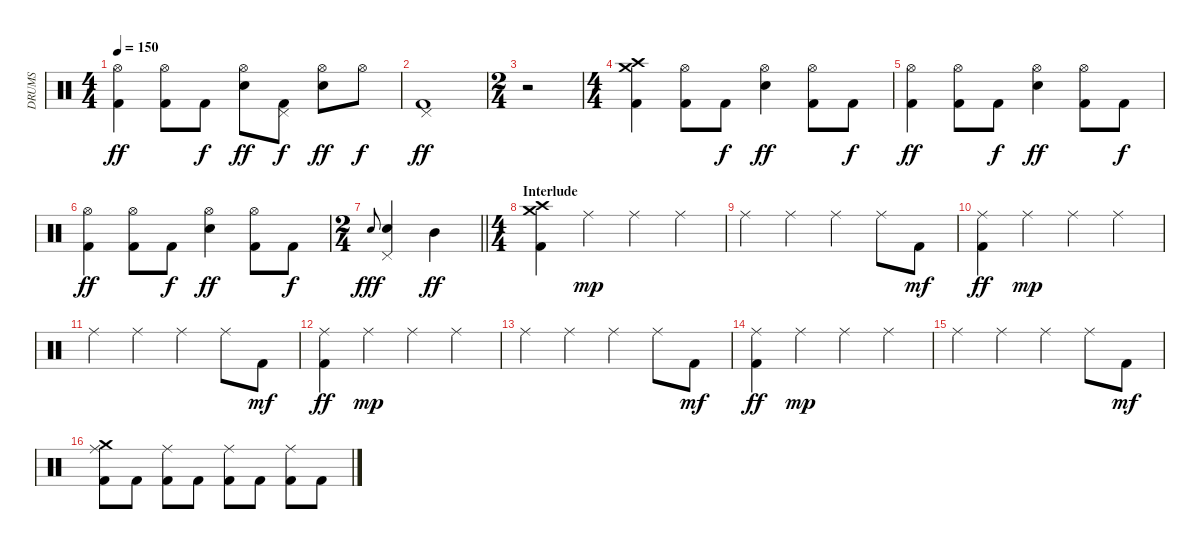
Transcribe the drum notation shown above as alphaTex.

\track ("DRUMS" "DRUMS") {instrument percussion}
\staff {score}
\articulation defaults
\ts (4 4)
\tempo 150
\clef neutral
\ks c
("Hi-Hat (open)" "Kick (hit) 2").4{dy ff} ("Hi-Hat (open)" "Kick (hit) 2").8 "Kick (hit) 2".8{dy f} ("Hi-Hat (open)" "Snare (hit) 2").8{dy ff} ("Pedal Hi-Hat (hit)" "Kick (hit) 2").8{dy f} ("Hi-Hat (open)" "Snare (hit) 2").8{dy ff} "Hi-Hat (open)".8{dy f} |
("Pedal Hi-Hat (hit)" "Kick (hit) 2").1{dy ff} |
\ts (2 4)
r.2 |
\ts (4 4)
("Crash medium (hit)" "Crash high (hit)" "Kick (hit) 2").4 ("Hi-Hat (open)" "Kick (hit) 2").8 "Kick (hit) 2".8{dy f} ("Hi-Hat (open)" "Snare (hit) 2").4{dy ff} ("Hi-Hat (open)" "Kick (hit) 2").8 "Kick (hit) 2".8{dy f} |
("Hi-Hat (open)" "Kick (hit) 2").4{dy ff} ("Hi-Hat (open)" "Kick (hit) 2").8 "Kick (hit) 2".8{dy f} ("Hi-Hat (open)" "Snare (hit) 2").4{dy ff} ("Hi-Hat (open)" "Kick (hit) 2").8 "Kick (hit) 2".8{dy f} |
("Hi-Hat (open)" "Kick (hit) 2").4{dy ff} ("Hi-Hat (open)" "Kick (hit) 2").8 "Kick (hit) 2".8{dy f} ("Hi-Hat (open)" "Snare (hit) 2").4{dy ff} ("Hi-Hat (open)" "Kick (hit) 2").8 "Kick (hit) 2".8{dy f} |
\ts (2 4)
\barLineRight lightlight "Electric Snare (hit)".8{gr onbeat dy fff}
("Pedal Hi-Hat (hit)" "Snare (hit) 2").4 "Mid Tom (hit)".4{dy ff} |
\ts (4 4)
\section ("" "Interlude")
("Crash medium (hit)" "Crash high (hit)" "Kick (hit) 2").4 "Ride (middle)".4{dy mp} "Ride (middle)".4 "Ride (middle)".4 |
"Ride (middle)".4 "Ride (middle)".4 "Ride (middle)".4 "Ride (middle)".8 "Kick (hit) 2".8{dy mf} |
("Ride (middle)" "Kick (hit) 2").4{dy ff} "Ride (middle)".4{dy mp} "Ride (middle)".4 "Ride (middle)".4 |
"Ride (middle)".4 "Ride (middle)".4 "Ride (middle)".4 "Ride (middle)".8 "Kick (hit) 2".8{dy mf} |
("Ride (middle)" "Kick (hit) 2").4{dy ff} "Ride (middle)".4{dy mp} "Ride (middle)".4 "Ride (middle)".4 |
"Ride (middle)".4 "Ride (middle)".4 "Ride (middle)".4 "Ride (middle)".8 "Kick (hit) 2".8{dy mf} |
("Ride (middle)" "Kick (hit) 2").4{dy ff} "Ride (middle)".4{dy mp} "Ride (middle)".4 "Ride (middle)".4 |
"Ride (middle)".4 "Ride (middle)".4 "Ride (middle)".4 "Ride (middle)".8 "Kick (hit) 2".8{dy mf} |
("Ride (middle)" "Crash medium (hit)" "Kick (hit) 2").8 "Kick (hit) 2".8 ("Ride (middle)" "Kick (hit) 2").8 "Kick (hit) 2".8 ("Ride (middle)" "Kick (hit) 2").8 "Kick (hit) 2".8 ("Ride (middle)" "Kick (hit) 2").8 "Kick (hit) 2".8
